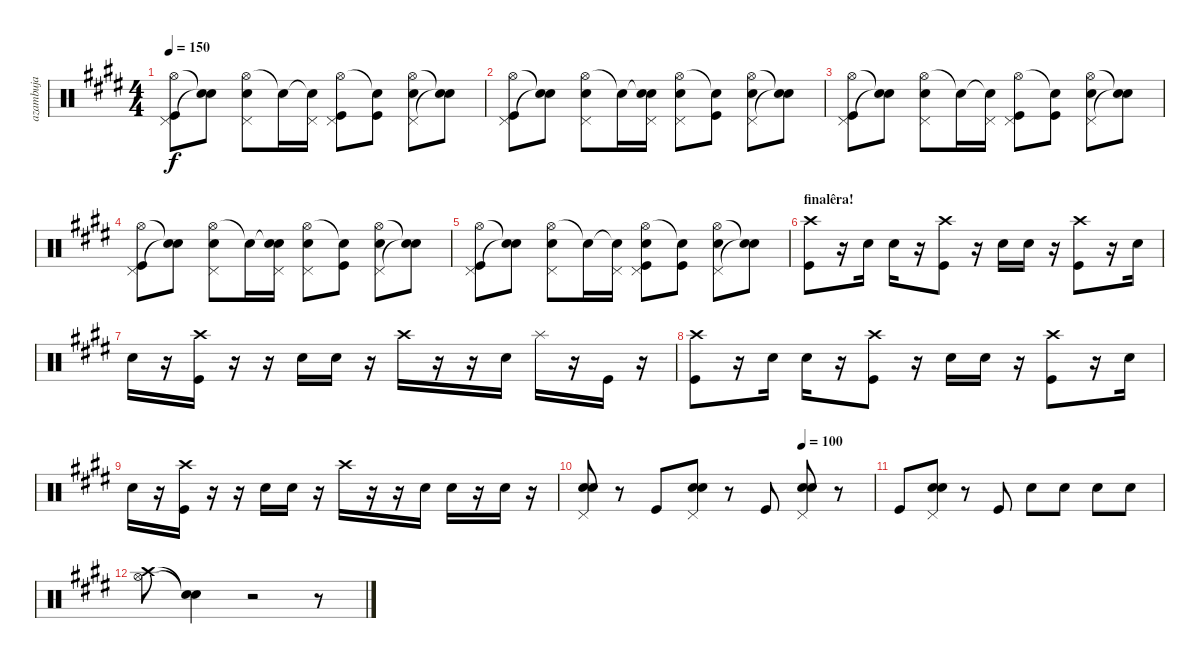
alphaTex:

\track ("azambuja" "azambuja") {instrument percussion}
\staff {score}
\articulation defaults
\ts (4 4)
\tempo 150
\clef neutral
\ks e
("Hi-Hat (open)" "Pedal Hi-Hat (hit)" "Kick (hit)").8{dy f} ("Snare (hit)"{t} "Snare (hit)"{t}).8 ("Hi-Hat (open)" "Pedal Hi-Hat (hit)" "Snare (hit) 2").8 "Snare (hit)"{t}.16 ("Snare (hit)"{t} "Pedal Hi-Hat (hit)").16 ("Hi-Hat (open)" "Pedal Hi-Hat (hit)" "Kick (hit)").8 ("Snare (hit)"{t} "Kick (hit)").8 ("Hi-Hat (open)" "Pedal Hi-Hat (hit)" "Snare (hit) 2").8 ("Snare (hit)"{t} "Snare (hit)"{t}).8 |
("Hi-Hat (open)" "Pedal Hi-Hat (hit)" "Kick (hit)").8 ("Snare (hit)"{t} "Snare (hit)"{t}).8 ("Hi-Hat (open)" "Pedal Hi-Hat (hit)" "Snare (hit) 2").8 "Snare (hit)"{t}.16 ("Snare (hit)"{t} "Pedal Hi-Hat (hit)" "Snare (hit) 2").16 ("Hi-Hat (open)" "Pedal Hi-Hat (hit)" "Snare (hit) 2").8 ("Snare (hit)"{t} "Kick (hit)").8 ("Hi-Hat (open)" "Pedal Hi-Hat (hit)" "Snare (hit) 2").8 ("Snare (hit)"{t} "Snare (hit)"{t}).8 |
("Hi-Hat (open)" "Pedal Hi-Hat (hit)" "Kick (hit)").8 ("Snare (hit)"{t} "Snare (hit)"{t}).8 ("Hi-Hat (open)" "Pedal Hi-Hat (hit)" "Snare (hit) 2").8 "Snare (hit)"{t}.16 ("Snare (hit)"{t} "Pedal Hi-Hat (hit)").16 ("Hi-Hat (open)" "Pedal Hi-Hat (hit)" "Kick (hit)").8 ("Snare (hit)"{t} "Kick (hit)").8 ("Hi-Hat (open)" "Pedal Hi-Hat (hit)" "Snare (hit) 2").8 ("Snare (hit)"{t} "Snare (hit)"{t}).8 |
("Hi-Hat (open)" "Pedal Hi-Hat (hit)" "Kick (hit)").8 ("Snare (hit)"{t} "Snare (hit)"{t}).8 ("Hi-Hat (open)" "Pedal Hi-Hat (hit)" "Snare (hit) 2").8 "Snare (hit)"{t}.16 ("Snare (hit)"{t} "Pedal Hi-Hat (hit)" "Snare (hit) 2").16 ("Hi-Hat (open)" "Pedal Hi-Hat (hit)" "Snare (hit) 2").8 ("Snare (hit)"{t} "Kick (hit)").8 ("Hi-Hat (open)" "Pedal Hi-Hat (hit)" "Snare (hit) 2").8 ("Snare (hit)"{t} "Snare (hit)"{t}).8 |
("Hi-Hat (open)" "Pedal Hi-Hat (hit)" "Kick (hit)").8 ("Snare (hit)"{t} "Snare (hit)"{t}).8 ("Hi-Hat (open)" "Pedal Hi-Hat (hit)" "Snare (hit) 2").8 "Snare (hit)"{t}.16 ("Snare (hit)"{t} "Pedal Hi-Hat (hit)").16 ("Hi-Hat (open)" "Pedal Hi-Hat (hit)" "Snare (hit) 2" "Kick (hit)").8 ("Snare (hit)"{t} "Kick (hit)").8 ("Hi-Hat (open)" "Pedal Hi-Hat (hit)" "Snare (hit) 2").8 ("Snare (hit)"{t} "Snare (hit)"{t}).8 |
\section ("" "finalêra!")
("Crash high (hit)" "Kick (hit)").8 r.16 "Snare (hit) 2".16 "Snare (hit) 2".16 r.16 ("Crash high (hit)" "Kick (hit)").8 r.16 "Snare (hit) 2".16 "Snare (hit) 2".16 r.16 ("Crash high (hit)" "Kick (hit)").8 r.16 "Snare (hit) 2".16 |
"Snare (hit) 2".16 r.16 ("Crash high (hit)" "Kick (hit)").16 r.16 r.16 "Snare (hit) 2".16 "Snare (hit) 2".16 r.16 "Crash high (hit)".16 r.16 r.16 "Snare (hit) 2".16 "Splash (hit)".16 r.16 "Kick (hit)".16 r.16 |
("Crash high (hit)" "Kick (hit)").8 r.16 "Snare (hit) 2".16 "Snare (hit) 2".16 r.16 ("Crash high (hit)" "Kick (hit)").8 r.16 "Snare (hit) 2".16 "Snare (hit) 2".16 r.16 ("Crash high (hit)" "Kick (hit)").8 r.16 "Snare (hit) 2".16 |
"Snare (hit) 2".16 r.16 ("Crash high (hit)" "Kick (hit)").16 r.16 r.16 "Snare (hit) 2".16 "Snare (hit) 2".16 r.16 "Crash high (hit)".16 r.16 r.16 "Snare (hit) 2".16 "Snare (hit) 2".16 r.16 "Snare (hit) 2".16 r.16 |
\tempo (100 0.75)
("Pedal Hi-Hat (hit)" "Snare (hit) 2" "Snare (hit) 2").8 r.8 "Kick (hit)".8 ("Pedal Hi-Hat (hit)" "Snare (hit) 2" "Snare (hit) 2").8 r.8 "Kick (hit)".8 ("Pedal Hi-Hat (hit)" "Snare (hit) 2" "Snare (hit) 2").8 r.8 |
"Kick (hit)".8 ("Pedal Hi-Hat (hit)" "Snare (hit) 2" "Snare (hit) 2").8 r.8 "Kick (hit)".8 "Snare (hit) 2".8 "Snare (hit) 2".8 "Snare (hit) 2".8 "Snare (hit) 2".8 |
("Crash high (hit)" "Hi-Hat (open)").8 ("Snare (hit)"{t} "Snare (hit)"{t}).4 r.2 r.8
